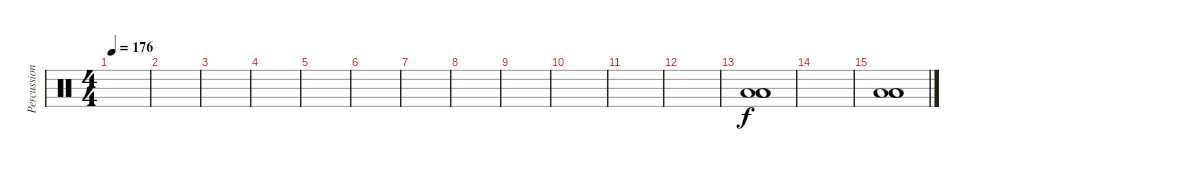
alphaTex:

\track ("Percussion" "Percussion") {instrument percussion}
\staff {score}
\articulation defaults
\ts (4 4)
\tempo 176
\clef neutral
\ks c
|
|
|
|
|
|
|
|
|
|
|
|
("Low Floor Tom (hit)" "Low Floor Tom (hit)" "Low Floor Tom (hit)").1 |
|
("Low Floor Tom (hit)" "Low Floor Tom (hit)" "Low Floor Tom (hit)").1
